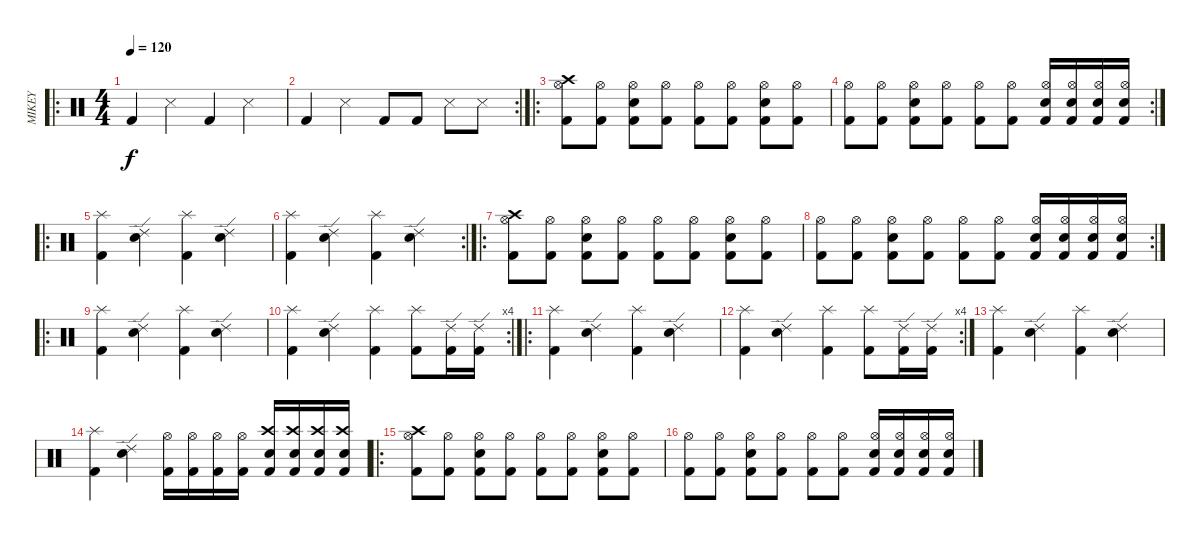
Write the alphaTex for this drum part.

\track ("MIKEY" "MIKEY") {instrument percussion}
\staff {score}
\articulation defaults
\ro
\ts (4 4)
\tempo 120
\clef neutral
\ks c "Kick (hit) 2".4{dy f} "Snare (side stick) 3".4 "Kick (hit) 2".4 "Snare (side stick) 3".4
|
\rc 2 "Kick (hit) 2".4 "Snare (side stick) 3".4 "Kick (hit) 2".8 "Kick (hit) 2".8 "Snare (side stick) 3".8 "Snare (side stick) 3".8
|
\ro
("Hi-Hat (open)" "Crash high (hit)" "Kick (hit) 2").8 ("Hi-Hat (open)" "Kick (hit) 2").8 ("Hi-Hat (open)" "Electric Snare (hit)" "Kick (hit) 2").8 ("Hi-Hat (open)" "Kick (hit) 2").8 ("Hi-Hat (open)" "Kick (hit) 2").8 ("Hi-Hat (open)" "Kick (hit) 2").8 ("Hi-Hat (open)" "Electric Snare (hit)" "Kick (hit) 2").8 ("Hi-Hat (open)" "Kick (hit) 2").8 |
\rc 2
("Hi-Hat (open)" "Kick (hit) 2").8 ("Hi-Hat (open)" "Kick (hit) 2").8 ("Hi-Hat (open)" "Electric Snare (hit)" "Kick (hit) 2").8 ("Hi-Hat (open)" "Kick (hit) 2").8 ("Hi-Hat (open)" "Kick (hit) 2").8 ("Hi-Hat (open)" "Kick (hit) 2").8 ("Hi-Hat (open)" "Electric Snare (hit)" "Kick (hit) 2").16 ("Hi-Hat (open)" "Electric Snare (hit)" "Kick (hit) 2").16 ("Hi-Hat (open)" "Electric Snare (hit)" "Kick (hit) 2").16 ("Hi-Hat (open)" "Electric Snare (hit)" "Kick (hit) 2").16 |
\ro
("Splash (hit)" "Kick (hit) 2").4 ("Ride (edge) 2" "Electric Snare (hit)").4 ("Splash (hit)" "Kick (hit) 2").4 ("Ride (edge) 2" "Electric Snare (hit)").4 |
\rc 2
("Splash (hit)" "Kick (hit) 2").4 ("Ride (edge) 2" "Electric Snare (hit)").4 ("Splash (hit)" "Kick (hit) 2").4 ("Ride (edge) 2" "Electric Snare (hit)").4 |
\ro
("Hi-Hat (open)" "Crash high (hit)" "Kick (hit) 2").8 ("Hi-Hat (open)" "Kick (hit) 2").8 ("Hi-Hat (open)" "Electric Snare (hit)" "Kick (hit) 2").8 ("Hi-Hat (open)" "Kick (hit) 2").8 ("Hi-Hat (open)" "Kick (hit) 2").8 ("Hi-Hat (open)" "Kick (hit) 2").8 ("Hi-Hat (open)" "Electric Snare (hit)" "Kick (hit) 2").8 ("Hi-Hat (open)" "Kick (hit) 2").8 |
\rc 2
("Hi-Hat (open)" "Kick (hit) 2").8 ("Hi-Hat (open)" "Kick (hit) 2").8 ("Hi-Hat (open)" "Electric Snare (hit)" "Kick (hit) 2").8 ("Hi-Hat (open)" "Kick (hit) 2").8 ("Hi-Hat (open)" "Kick (hit) 2").8 ("Hi-Hat (open)" "Kick (hit) 2").8 ("Hi-Hat (open)" "Electric Snare (hit)" "Kick (hit) 2").16 ("Hi-Hat (open)" "Electric Snare (hit)" "Kick (hit) 2").16 ("Hi-Hat (open)" "Electric Snare (hit)" "Kick (hit) 2").16 ("Hi-Hat (open)" "Electric Snare (hit)" "Kick (hit) 2").16 |
\ro
("Splash (hit)" "Kick (hit) 2").4 ("Ride (edge) 2" "Electric Snare (hit)").4 ("Splash (hit)" "Kick (hit) 2").4 ("Ride (edge) 2" "Electric Snare (hit)").4 |
\rc 4
("Splash (hit)" "Kick (hit) 2").4 ("Ride (edge) 2" "Electric Snare (hit)").4 ("Splash (hit)" "Kick (hit) 2").4 ("Splash (hit)" "Kick (hit) 2").8 ("Ride (edge) 2" "Kick (hit) 2").16 ("Ride (edge) 2" "Kick (hit) 2").16 |
\ro
("Splash (hit)" "Kick (hit) 2").4 ("Ride (edge) 2" "Electric Snare (hit)").4 ("Splash (hit)" "Kick (hit) 2").4 ("Ride (edge) 2" "Electric Snare (hit)").4 |
\rc 4
("Splash (hit)" "Kick (hit) 2").4 ("Ride (edge) 2" "Electric Snare (hit)").4 ("Splash (hit)" "Kick (hit) 2").4 ("Splash (hit)" "Kick (hit) 2").8 ("Ride (edge) 2" "Kick (hit) 2").16 ("Ride (edge) 2" "Kick (hit) 2").16 |
("Splash (hit)" "Kick (hit) 2").4 ("Ride (edge) 2" "Electric Snare (hit)").4 ("Splash (hit)" "Kick (hit) 2").4 ("Ride (edge) 2" "Electric Snare (hit)").4 |
("Splash (hit)" "Kick (hit) 2").4 ("Ride (edge) 2" "Electric Snare (hit)").4 ("Hi-Hat (open)" "Kick (hit) 2").16 ("Hi-Hat (open)" "Kick (hit) 2").16 ("Hi-Hat (open)" "Kick (hit) 2").16 ("Hi-Hat (open)" "Kick (hit) 2").16 ("Crash high (hit)" "Electric Snare (hit)" "Kick (hit) 2").16 ("Crash high (hit)" "Electric Snare (hit)" "Kick (hit) 2").16 ("Crash high (hit)" "Electric Snare (hit)" "Kick (hit) 2").16 ("Crash high (hit)" "Electric Snare (hit)" "Kick (hit) 2").16 |
\ro
("Hi-Hat (open)" "Crash high (hit)" "Kick (hit) 2").8 ("Hi-Hat (open)" "Kick (hit) 2").8 ("Hi-Hat (open)" "Electric Snare (hit)" "Kick (hit) 2").8 ("Hi-Hat (open)" "Kick (hit) 2").8 ("Hi-Hat (open)" "Kick (hit) 2").8 ("Hi-Hat (open)" "Kick (hit) 2").8 ("Hi-Hat (open)" "Electric Snare (hit)" "Kick (hit) 2").8 ("Hi-Hat (open)" "Kick (hit) 2").8 |
("Hi-Hat (open)" "Kick (hit) 2").8 ("Hi-Hat (open)" "Kick (hit) 2").8 ("Hi-Hat (open)" "Electric Snare (hit)" "Kick (hit) 2").8 ("Hi-Hat (open)" "Kick (hit) 2").8 ("Hi-Hat (open)" "Kick (hit) 2").8 ("Hi-Hat (open)" "Kick (hit) 2").8 ("Hi-Hat (open)" "Electric Snare (hit)" "Kick (hit) 2").16 ("Hi-Hat (open)"{x} "Electric Snare (hit)"{x} "Kick (hit) 2"{x}).16 ("Hi-Hat (open)" "Electric Snare (hit)" "Kick (hit) 2").16 ("Hi-Hat (open)"{x} "Electric Snare (hit)"{x} "Kick (hit) 2"{x}).16
